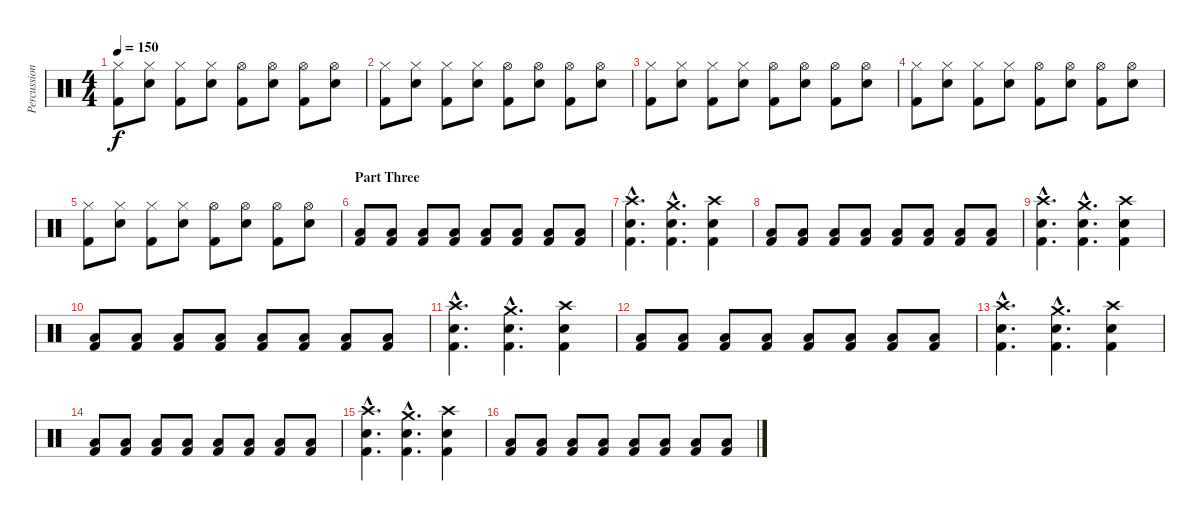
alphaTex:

\track ("Percussion" "Percussion") {instrument percussion}
\staff {score}
\articulation defaults
\ts (4 4)
\tempo 150
\clef neutral
\ks c
("Hi-Hat (closed)" "Kick (hit) 2").8{dy f} ("Hi-Hat (closed)" "Electric Snare (hit)").8 ("Hi-Hat (closed)" "Kick (hit) 2").8 ("Hi-Hat (closed)" "Electric Snare (hit)").8 ("Hi-Hat (open)" "Kick (hit) 2").8 ("Hi-Hat (open)" "Electric Snare (hit)").8 ("Hi-Hat (open)" "Kick (hit) 2").8 ("Hi-Hat (open)" "Electric Snare (hit)").8 |
("Hi-Hat (closed)" "Kick (hit) 2").8 ("Hi-Hat (closed)" "Electric Snare (hit)").8 ("Hi-Hat (closed)" "Kick (hit) 2").8 ("Hi-Hat (closed)" "Electric Snare (hit)").8 ("Hi-Hat (open)" "Kick (hit) 2").8 ("Hi-Hat (open)" "Electric Snare (hit)").8 ("Hi-Hat (open)" "Kick (hit) 2").8 ("Hi-Hat (open)" "Electric Snare (hit)").8 |
("Hi-Hat (closed)" "Kick (hit) 2").8 ("Hi-Hat (closed)" "Electric Snare (hit)").8 ("Hi-Hat (closed)" "Kick (hit) 2").8 ("Hi-Hat (closed)" "Electric Snare (hit)").8 ("Hi-Hat (open)" "Kick (hit) 2").8 ("Hi-Hat (open)" "Electric Snare (hit)").8 ("Hi-Hat (open)" "Kick (hit) 2").8 ("Hi-Hat (open)" "Electric Snare (hit)").8 |
("Hi-Hat (closed)" "Kick (hit) 2").8 ("Hi-Hat (closed)" "Electric Snare (hit)").8 ("Hi-Hat (closed)" "Kick (hit) 2").8 ("Hi-Hat (closed)" "Electric Snare (hit)").8 ("Hi-Hat (open)" "Kick (hit) 2").8 ("Hi-Hat (open)" "Electric Snare (hit)").8 ("Hi-Hat (open)" "Kick (hit) 2").8 ("Hi-Hat (open)" "Electric Snare (hit)").8 |
("Hi-Hat (closed)" "Kick (hit) 2").8 ("Hi-Hat (closed)" "Electric Snare (hit)").8 ("Hi-Hat (closed)" "Kick (hit) 2").8 ("Hi-Hat (closed)" "Electric Snare (hit)").8 ("Hi-Hat (open)" "Kick (hit) 2").8 ("Hi-Hat (open)" "Electric Snare (hit)").8 ("Hi-Hat (open)" "Kick (hit) 2").8 ("Hi-Hat (open)" "Electric Snare (hit)").8 |
\section ("" "Part Three")
("Low Tom (hit)" "Kick (hit) 2").8 ("Low Tom (hit)" "Kick (hit) 2").8 ("Low Tom (hit)" "Kick (hit) 2").8 ("Low Tom (hit)" "Kick (hit) 2").8 ("Low Tom (hit)" "Kick (hit) 2").8 ("Low Tom (hit)" "Kick (hit) 2").8 ("Low Tom (hit)" "Kick (hit) 2").8 ("Low Tom (hit)" "Kick (hit) 2").8 |
("Crash high (hit)"{hac} "Electric Snare (hit)"{hac} "Kick (hit) 2"{hac}).4{d} ("Crash medium (hit)"{hac} "Electric Snare (hit)"{hac} "Kick (hit) 2"{hac}).4{d} ("Crash high (hit)" "Electric Snare (hit)" "Kick (hit) 2").4 |
("Low Tom (hit)" "Kick (hit) 2").8 ("Low Tom (hit)" "Kick (hit) 2").8 ("Low Tom (hit)" "Kick (hit) 2").8 ("Low Tom (hit)" "Kick (hit) 2").8 ("Low Tom (hit)" "Kick (hit) 2").8 ("Low Tom (hit)" "Kick (hit) 2").8 ("Low Tom (hit)" "Kick (hit) 2").8 ("Low Tom (hit)" "Kick (hit) 2").8 |
("Crash high (hit)"{hac} "Electric Snare (hit)"{hac} "Kick (hit) 2"{hac}).4{d} ("Crash medium (hit)"{hac} "Electric Snare (hit)"{hac} "Kick (hit) 2"{hac}).4{d} ("Crash high (hit)" "Electric Snare (hit)" "Kick (hit) 2").4 |
("Low Tom (hit)" "Kick (hit) 2").8 ("Low Tom (hit)" "Kick (hit) 2").8 ("Low Tom (hit)" "Kick (hit) 2").8 ("Low Tom (hit)" "Kick (hit) 2").8 ("Low Tom (hit)" "Kick (hit) 2").8 ("Low Tom (hit)" "Kick (hit) 2").8 ("Low Tom (hit)" "Kick (hit) 2").8 ("Low Tom (hit)" "Kick (hit) 2").8 |
("Crash high (hit)"{hac} "Electric Snare (hit)"{hac} "Kick (hit) 2"{hac}).4{d} ("Crash medium (hit)"{hac} "Electric Snare (hit)"{hac} "Kick (hit) 2"{hac}).4{d} ("Crash high (hit)" "Electric Snare (hit)" "Kick (hit) 2").4 |
("Low Tom (hit)" "Kick (hit) 2").8 ("Low Tom (hit)" "Kick (hit) 2").8 ("Low Tom (hit)" "Kick (hit) 2").8 ("Low Tom (hit)" "Kick (hit) 2").8 ("Low Tom (hit)" "Kick (hit) 2").8 ("Low Tom (hit)" "Kick (hit) 2").8 ("Low Tom (hit)" "Kick (hit) 2").8 ("Low Tom (hit)" "Kick (hit) 2").8 |
("Crash high (hit)"{hac} "Electric Snare (hit)"{hac} "Kick (hit) 2"{hac}).4{d} ("Crash medium (hit)"{hac} "Electric Snare (hit)"{hac} "Kick (hit) 2"{hac}).4{d} ("Crash high (hit)" "Electric Snare (hit)" "Kick (hit) 2").4 |
("Low Tom (hit)" "Kick (hit) 2").8 ("Low Tom (hit)" "Kick (hit) 2").8 ("Low Tom (hit)" "Kick (hit) 2").8 ("Low Tom (hit)" "Kick (hit) 2").8 ("Low Tom (hit)" "Kick (hit) 2").8 ("Low Tom (hit)" "Kick (hit) 2").8 ("Low Tom (hit)" "Kick (hit) 2").8 ("Low Tom (hit)" "Kick (hit) 2").8 |
("Crash high (hit)"{hac} "Electric Snare (hit)"{hac} "Kick (hit) 2"{hac}).4{d} ("Crash medium (hit)"{hac} "Electric Snare (hit)"{hac} "Kick (hit) 2"{hac}).4{d} ("Crash high (hit)" "Electric Snare (hit)" "Kick (hit) 2").4 |
("Low Tom (hit)" "Kick (hit) 2").8 ("Low Tom (hit)" "Kick (hit) 2").8 ("Low Tom (hit)" "Kick (hit) 2").8 ("Low Tom (hit)" "Kick (hit) 2").8 ("Low Tom (hit)" "Kick (hit) 2").8 ("Low Tom (hit)" "Kick (hit) 2").8 ("Low Tom (hit)" "Kick (hit) 2").8 ("Low Tom (hit)" "Kick (hit) 2").8
